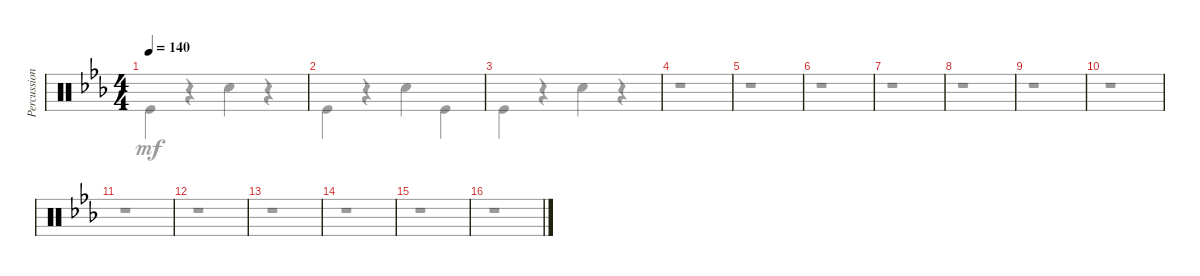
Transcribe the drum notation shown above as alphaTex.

\track ("Percussions" "Percussion") {instrument percussion}
\staff {score}
\articulation defaults
\voice
\ts (4 4)
\tempo 140
\clef neutral
\ks cminor
|
|
|
|
|
|
|
|
|
|
|
|
|
|
|
\voice
\clef neutral
\ks cminor "Kick (hit)".4{dy mf}
r.4 "Snare (hit) 2".4 r.4 |
"Kick (hit)".4 r.4 "Snare (hit) 2".4 "Kick (hit)".4 |
"Kick (hit)".4 r.4 "Snare (hit) 2".4 r.4 |
r.1 |
r.1 |
r.1 |
r.1 |
r.1 |
r.1 |
r.1 |
r.1 |
r.1 |
r.1 |
r.1 |
r.1 |
r.1
